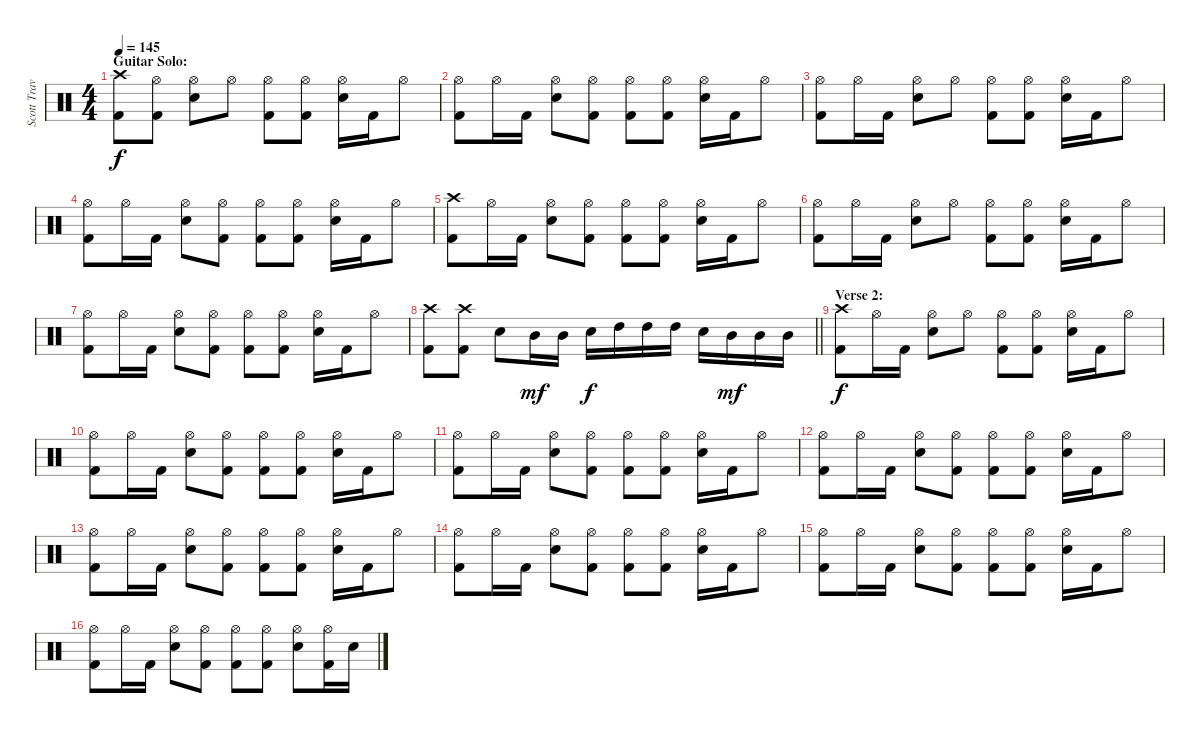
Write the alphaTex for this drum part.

\track ("Scott Travis" "Scott Trav") {instrument percussion}
\staff {score}
\articulation defaults
\ts (4 4)
\section ("" "Guitar Solo:")
\tempo 145
\clef neutral
\ks c
("Crash high (hit)" "Kick (hit) 2").8{dy f} ("Hi-Hat (open)" "Kick (hit) 2").8 ("Hi-Hat (open)" "Snare (hit) 2").8 "Hi-Hat (open)".8 ("Hi-Hat (open)" "Kick (hit) 2").8 ("Hi-Hat (open)" "Kick (hit) 2").8 ("Hi-Hat (open)" "Snare (hit) 2").16 "Kick (hit) 2".16 "Hi-Hat (open)".8 |
("Hi-Hat (open)" "Kick (hit) 2").8 "Hi-Hat (open)".16 "Kick (hit) 2".16 ("Hi-Hat (open)" "Snare (hit) 2").8 ("Hi-Hat (open)" "Kick (hit) 2").8 ("Hi-Hat (open)" "Kick (hit) 2").8 ("Hi-Hat (open)" "Kick (hit) 2").8 ("Hi-Hat (open)" "Snare (hit) 2").16 "Kick (hit) 2".16 "Hi-Hat (open)".8 |
("Hi-Hat (open)" "Kick (hit) 2").8 "Hi-Hat (open)".16 "Kick (hit) 2".16 ("Hi-Hat (open)" "Snare (hit) 2").8 "Hi-Hat (open)".8 ("Hi-Hat (open)" "Kick (hit) 2").8 ("Hi-Hat (open)" "Kick (hit) 2").8 ("Hi-Hat (open)" "Snare (hit) 2").16 "Kick (hit) 2".16 "Hi-Hat (open)".8 |
("Hi-Hat (open)" "Kick (hit) 2").8 "Hi-Hat (open)".16 "Kick (hit) 2".16 ("Hi-Hat (open)" "Snare (hit) 2").8 ("Hi-Hat (open)" "Kick (hit) 2").8 ("Hi-Hat (open)" "Kick (hit) 2").8 ("Hi-Hat (open)" "Kick (hit) 2").8 ("Hi-Hat (open)" "Snare (hit) 2").16 "Kick (hit) 2".16 "Hi-Hat (open)".8 |
("Crash high (hit)" "Kick (hit) 2").8 "Hi-Hat (open)".16 "Kick (hit) 2".16 ("Hi-Hat (open)" "Snare (hit) 2").8 ("Hi-Hat (open)" "Kick (hit) 2").8 ("Hi-Hat (open)" "Kick (hit) 2").8 ("Hi-Hat (open)" "Kick (hit) 2").8 ("Hi-Hat (open)" "Snare (hit) 2").16 "Kick (hit) 2".16 "Hi-Hat (open)".8 |
("Hi-Hat (open)" "Kick (hit) 2").8 "Hi-Hat (open)".16 "Kick (hit) 2".16 ("Hi-Hat (open)" "Snare (hit) 2").8 "Hi-Hat (open)".8 ("Hi-Hat (open)" "Kick (hit) 2").8 ("Hi-Hat (open)" "Kick (hit) 2").8 ("Hi-Hat (open)" "Snare (hit) 2").16 "Kick (hit) 2".16 "Hi-Hat (open)".8 |
("Hi-Hat (open)" "Kick (hit) 2").8 "Hi-Hat (open)".16 "Kick (hit) 2".16 ("Hi-Hat (open)" "Snare (hit) 2").8 ("Hi-Hat (open)" "Kick (hit) 2").8 ("Hi-Hat (open)" "Kick (hit) 2").8 ("Hi-Hat (open)" "Kick (hit) 2").8 ("Hi-Hat (open)" "Snare (hit) 2").16 "Kick (hit) 2".16 "Hi-Hat (open)".8 |
\barLineRight lightlight
("Crash high (hit)" "Kick (hit) 2").8 ("Crash high (hit)" "Kick (hit) 2").8 "Snare (hit) 2".8 "Mid Tom (hit)".16{dy mf} "Mid Tom (hit)".16 "Snare (hit) 2".16{dy f} "High Tom (hit)".16 "High Tom (hit)".16 "High Tom (hit)".16 "Snare (hit) 2".16 "Mid Tom (hit)".16{dy mf} "Mid Tom (hit)".16 "Mid Tom (hit)".16 |
\section ("" "Verse 2:")
("Crash high (hit)" "Kick (hit) 2").8{dy f} "Hi-Hat (open)".16 "Kick (hit) 2".16 ("Hi-Hat (open)" "Snare (hit) 2").8 "Hi-Hat (open)".8 ("Hi-Hat (open)" "Kick (hit) 2").8 ("Hi-Hat (open)" "Kick (hit) 2").8 ("Hi-Hat (open)" "Snare (hit) 2").16 "Kick (hit) 2".16 "Hi-Hat (open)".8 |
("Hi-Hat (open)" "Kick (hit) 2").8 "Hi-Hat (open)".16 "Kick (hit) 2".16 ("Hi-Hat (open)" "Snare (hit) 2").8 ("Hi-Hat (open)" "Kick (hit) 2").8 ("Hi-Hat (open)" "Kick (hit) 2").8 ("Hi-Hat (open)" "Kick (hit) 2").8 ("Hi-Hat (open)" "Snare (hit) 2").16 "Kick (hit) 2".16 "Hi-Hat (open)".8 |
("Hi-Hat (open)" "Kick (hit) 2").8 "Hi-Hat (open)".16 "Kick (hit) 2".16 ("Hi-Hat (open)" "Snare (hit) 2").8 ("Hi-Hat (open)" "Kick (hit) 2").8 ("Hi-Hat (open)" "Kick (hit) 2").8 ("Hi-Hat (open)" "Kick (hit) 2").8 ("Hi-Hat (open)" "Snare (hit) 2").16 "Kick (hit) 2".16 "Hi-Hat (open)".8 |
("Hi-Hat (open)" "Kick (hit) 2").8 "Hi-Hat (open)".16 "Kick (hit) 2".16 ("Hi-Hat (open)" "Snare (hit) 2").8 ("Hi-Hat (open)" "Kick (hit) 2").8 ("Hi-Hat (open)" "Kick (hit) 2").8 ("Hi-Hat (open)" "Kick (hit) 2").8 ("Hi-Hat (open)" "Snare (hit) 2").16 "Kick (hit) 2".16 "Hi-Hat (open)".8 |
("Hi-Hat (open)" "Kick (hit) 2").8 "Hi-Hat (open)".16 "Kick (hit) 2".16 ("Hi-Hat (open)" "Snare (hit) 2").8 ("Hi-Hat (open)" "Kick (hit) 2").8 ("Hi-Hat (open)" "Kick (hit) 2").8 ("Hi-Hat (open)" "Kick (hit) 2").8 ("Hi-Hat (open)" "Snare (hit) 2").16 "Kick (hit) 2".16 "Hi-Hat (open)".8 |
("Hi-Hat (open)" "Kick (hit) 2").8 "Hi-Hat (open)".16 "Kick (hit) 2".16 ("Hi-Hat (open)" "Snare (hit) 2").8 ("Hi-Hat (open)" "Kick (hit) 2").8 ("Hi-Hat (open)" "Kick (hit) 2").8 ("Hi-Hat (open)" "Kick (hit) 2").8 ("Hi-Hat (open)" "Snare (hit) 2").16 "Kick (hit) 2".16 "Hi-Hat (open)".8 |
("Hi-Hat (open)" "Kick (hit) 2").8 "Hi-Hat (open)".16 "Kick (hit) 2".16 ("Hi-Hat (open)" "Snare (hit) 2").8 ("Hi-Hat (open)" "Kick (hit) 2").8 ("Hi-Hat (open)" "Kick (hit) 2").8 ("Hi-Hat (open)" "Kick (hit) 2").8 ("Hi-Hat (open)" "Snare (hit) 2").16 "Kick (hit) 2".16 "Hi-Hat (open)".8 |
("Hi-Hat (open)" "Kick (hit) 2").8 "Hi-Hat (open)".16 "Kick (hit) 2".16 ("Hi-Hat (open)" "Snare (hit) 2").8 ("Hi-Hat (open)" "Kick (hit) 2").8 ("Hi-Hat (open)" "Kick (hit) 2").8 ("Hi-Hat (open)" "Kick (hit) 2").8 ("Hi-Hat (open)" "Snare (hit) 2").8 ("Hi-Hat (open)" "Kick (hit) 2").16 "Snare (hit) 2".16
